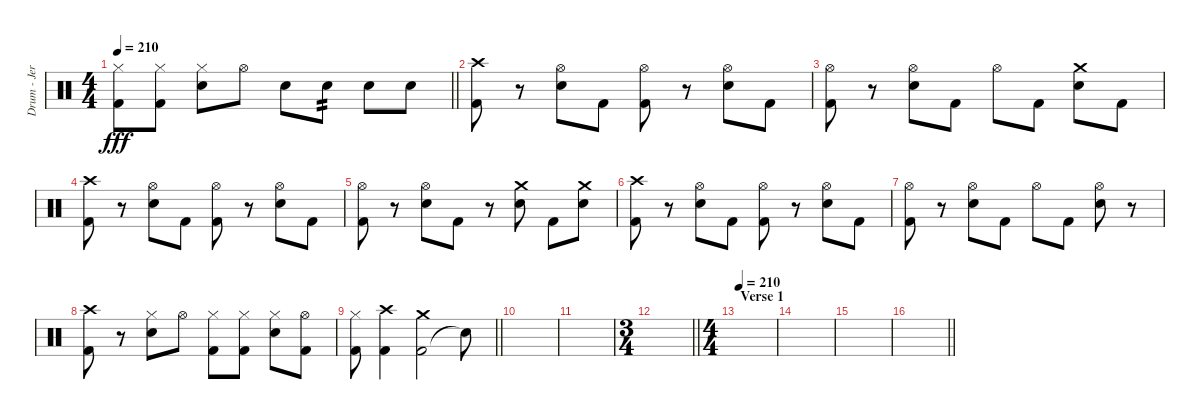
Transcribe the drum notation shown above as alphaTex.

\track ("Drum - Jerinx" "Drum - Jer") {instrument percussion}
\staff {score}
\articulation defaults
\ts (4 4)
\tempo 210
\clef neutral
\barLineRight lightlight
\ks c
("Hi-Hat (closed)" "Kick (hit) 2").8{dy fff} ("Hi-Hat (closed)" "Kick (hit) 2").8 ("Hi-Hat (closed)" "Snare (hit) 2").8 "Hi-Hat (open)".8 "Snare (hit) 2".8 "Snare (hit) 2".8{tp 2} "Snare (hit) 2".8 "Snare (hit) 2".8 |
("Kick (hit) 2" "Crash high (hit)").8 r.8 ("Hi-Hat (open)" "Snare (hit) 2").8 "Kick (hit) 2".8 ("Hi-Hat (open)" "Kick (hit) 2").8 r.8 ("Hi-Hat (open)" "Snare (hit) 2").8 "Kick (hit) 2".8 |
("Hi-Hat (open)" "Kick (hit) 2").8 r.8 ("Hi-Hat (open)" "Snare (hit) 2").8 "Kick (hit) 2".8 "Hi-Hat (open)".8 "Kick (hit) 2".8 ("Snare (hit) 2" "Crash medium (hit)").8 "Kick (hit) 2".8 |
("Kick (hit) 2" "Crash high (hit)").8 r.8 ("Hi-Hat (open)" "Snare (hit) 2").8 "Kick (hit) 2".8 ("Hi-Hat (open)" "Kick (hit) 2").8 r.8 ("Hi-Hat (open)" "Snare (hit) 2").8 "Kick (hit) 2".8 |
("Hi-Hat (open)" "Kick (hit) 2").8 r.8 ("Hi-Hat (open)" "Snare (hit) 2").8 "Kick (hit) 2".8 r.8 ("Snare (hit) 2" "Crash medium (hit)").8 "Kick (hit) 2".8 ("Snare (hit) 2" "Crash medium (hit)").8 |
("Kick (hit) 2" "Crash high (hit)").8 r.8 ("Hi-Hat (open)" "Snare (hit) 2").8 "Kick (hit) 2".8 ("Hi-Hat (open)" "Kick (hit) 2").8 r.8 ("Hi-Hat (open)" "Snare (hit) 2").8 "Kick (hit) 2".8 |
("Hi-Hat (open)" "Kick (hit) 2").8 r.8 ("Hi-Hat (open)" "Snare (hit) 2").8 "Kick (hit) 2".8 "Hi-Hat (open)".8 "Kick (hit) 2".8 ("Hi-Hat (open)" "Snare (hit) 2").8 r.8 |
("Kick (hit) 2" "Crash high (hit)").8 r.8 ("Hi-Hat (closed)" "Snare (hit) 2").8 "Hi-Hat (open)".8 ("Hi-Hat (closed)" "Kick (hit) 2").8 ("Hi-Hat (closed)" "Kick (hit) 2").8 ("Hi-Hat (closed)" "Snare (hit) 2").8 ("Hi-Hat (open)" "Kick (hit) 2").8 |
\barLineRight lightlight
("Hi-Hat (closed)" "Kick (hit) 2").8 ("Kick (hit) 2" "Crash high (hit)").4 ("Kick (hit) 2" "Crash medium (hit)").2 "Snare (hit)"{t}.8 |
|
|
\ts (3 4)
\barLineRight lightlight
|
\ts (4 4)
\section ("" "Verse 1")
\tempo 210
|
|
|
\barLineRight lightlight
